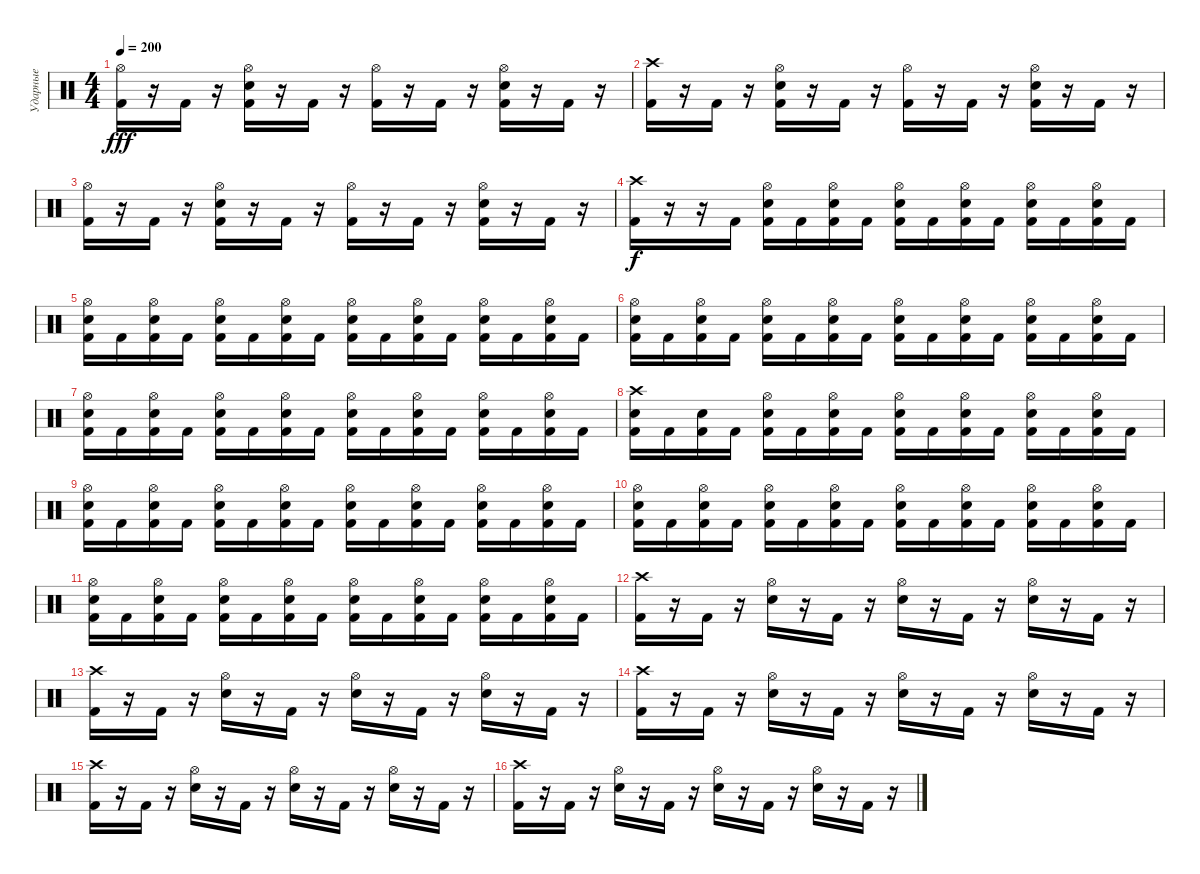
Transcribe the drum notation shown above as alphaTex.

\track ("Ударные" "Ударные") {instrument percussion}
\staff {score}
\articulation defaults
\ts (4 4)
\tempo 200
\clef neutral
\ks c
("Hi-Hat (open)" "Kick (hit) 2").16{dy fff} r.16 "Kick (hit) 2".16 r.16 ("Hi-Hat (open)" "Electric Snare (hit)" "Kick (hit) 2").16 r.16 "Kick (hit) 2".16 r.16 ("Hi-Hat (open)" "Kick (hit) 2").16 r.16 "Kick (hit) 2".16 r.16 ("Hi-Hat (open)" "Electric Snare (hit)" "Kick (hit) 2").16 r.16 "Kick (hit) 2".16 r.16 |
("Crash high (hit)" "Kick (hit) 2").16 r.16 "Kick (hit) 2".16 r.16 ("Hi-Hat (open)" "Electric Snare (hit)" "Kick (hit) 2").16 r.16 "Kick (hit) 2".16 r.16 ("Hi-Hat (open)" "Kick (hit) 2").16 r.16 "Kick (hit) 2".16 r.16 ("Hi-Hat (open)" "Electric Snare (hit)" "Kick (hit) 2").16 r.16 "Kick (hit) 2".16 r.16 |
("Hi-Hat (open)" "Kick (hit) 2").16 r.16 "Kick (hit) 2".16 r.16 ("Hi-Hat (open)" "Electric Snare (hit)" "Kick (hit) 2").16 r.16 "Kick (hit) 2".16 r.16 ("Hi-Hat (open)" "Kick (hit) 2").16 r.16 "Kick (hit) 2".16 r.16 ("Hi-Hat (open)" "Electric Snare (hit)" "Kick (hit) 2").16 r.16 "Kick (hit) 2".16 r.16 |
("Crash high (hit)" "Kick (hit) 2").16{dy f} r.16 r.16 "Kick (hit) 2".16 ("Hi-Hat (open)" "Electric Snare (hit)" "Kick (hit) 2").16 "Kick (hit) 2".16 ("Hi-Hat (open)" "Electric Snare (hit)" "Kick (hit) 2").16 "Kick (hit) 2".16 ("Hi-Hat (open)" "Electric Snare (hit)" "Kick (hit) 2").16 "Kick (hit) 2".16 ("Hi-Hat (open)" "Electric Snare (hit)" "Kick (hit) 2").16 "Kick (hit) 2".16 ("Hi-Hat (open)" "Electric Snare (hit)" "Kick (hit) 2").16 "Kick (hit) 2".16 ("Hi-Hat (open)" "Electric Snare (hit)" "Kick (hit) 2").16 "Kick (hit) 2".16 |
("Hi-Hat (open)" "Electric Snare (hit)" "Kick (hit) 2").16 "Kick (hit) 2".16 ("Hi-Hat (open)" "Electric Snare (hit)" "Kick (hit) 2").16 "Kick (hit) 2".16 ("Hi-Hat (open)" "Electric Snare (hit)" "Kick (hit) 2").16 "Kick (hit) 2".16 ("Hi-Hat (open)" "Electric Snare (hit)" "Kick (hit) 2").16 "Kick (hit) 2".16 ("Hi-Hat (open)" "Electric Snare (hit)" "Kick (hit) 2").16 "Kick (hit) 2".16 ("Hi-Hat (open)" "Electric Snare (hit)" "Kick (hit) 2").16 "Kick (hit) 2".16 ("Hi-Hat (open)" "Electric Snare (hit)" "Kick (hit) 2").16 "Kick (hit) 2".16 ("Hi-Hat (open)" "Electric Snare (hit)" "Kick (hit) 2").16 "Kick (hit) 2".16 |
("Hi-Hat (open)" "Electric Snare (hit)" "Kick (hit) 2").16 "Kick (hit) 2".16 ("Hi-Hat (open)" "Electric Snare (hit)" "Kick (hit) 2").16 "Kick (hit) 2".16 ("Hi-Hat (open)" "Electric Snare (hit)" "Kick (hit) 2").16 "Kick (hit) 2".16 ("Hi-Hat (open)" "Electric Snare (hit)" "Kick (hit) 2").16 "Kick (hit) 2".16 ("Hi-Hat (open)" "Electric Snare (hit)" "Kick (hit) 2").16 "Kick (hit) 2".16 ("Hi-Hat (open)" "Electric Snare (hit)" "Kick (hit) 2").16 "Kick (hit) 2".16 ("Hi-Hat (open)" "Electric Snare (hit)" "Kick (hit) 2").16 "Kick (hit) 2".16 ("Hi-Hat (open)" "Electric Snare (hit)" "Kick (hit) 2").16 "Kick (hit) 2".16 |
("Hi-Hat (open)" "Electric Snare (hit)" "Kick (hit) 2").16 "Kick (hit) 2".16 ("Hi-Hat (open)" "Electric Snare (hit)" "Kick (hit) 2").16 "Kick (hit) 2".16 ("Hi-Hat (open)" "Electric Snare (hit)" "Kick (hit) 2").16 "Kick (hit) 2".16 ("Hi-Hat (open)" "Electric Snare (hit)" "Kick (hit) 2").16 "Kick (hit) 2".16 ("Hi-Hat (open)" "Electric Snare (hit)" "Kick (hit) 2").16 "Kick (hit) 2".16 ("Hi-Hat (open)" "Electric Snare (hit)" "Kick (hit) 2").16 "Kick (hit) 2".16 ("Hi-Hat (open)" "Electric Snare (hit)" "Kick (hit) 2").16 "Kick (hit) 2".16 ("Hi-Hat (open)" "Electric Snare (hit)" "Kick (hit) 2").16 "Kick (hit) 2".16 |
("Crash high (hit)" "Electric Snare (hit)" "Kick (hit) 2").16 "Kick (hit) 2".16 ("Electric Snare (hit)" "Kick (hit) 2").16 "Kick (hit) 2".16 ("Hi-Hat (open)" "Electric Snare (hit)" "Kick (hit) 2").16 "Kick (hit) 2".16 ("Hi-Hat (open)" "Electric Snare (hit)" "Kick (hit) 2").16 "Kick (hit) 2".16 ("Hi-Hat (open)" "Electric Snare (hit)" "Kick (hit) 2").16 "Kick (hit) 2".16 ("Hi-Hat (open)" "Electric Snare (hit)" "Kick (hit) 2").16 "Kick (hit) 2".16 ("Hi-Hat (open)" "Electric Snare (hit)" "Kick (hit) 2").16 "Kick (hit) 2".16 ("Hi-Hat (open)" "Electric Snare (hit)" "Kick (hit) 2").16 "Kick (hit) 2".16 |
("Hi-Hat (open)" "Electric Snare (hit)" "Kick (hit) 2").16 "Kick (hit) 2".16 ("Hi-Hat (open)" "Electric Snare (hit)" "Kick (hit) 2").16 "Kick (hit) 2".16 ("Hi-Hat (open)" "Electric Snare (hit)" "Kick (hit) 2").16 "Kick (hit) 2".16 ("Hi-Hat (open)" "Electric Snare (hit)" "Kick (hit) 2").16 "Kick (hit) 2".16 ("Hi-Hat (open)" "Electric Snare (hit)" "Kick (hit) 2").16 "Kick (hit) 2".16 ("Hi-Hat (open)" "Electric Snare (hit)" "Kick (hit) 2").16 "Kick (hit) 2".16 ("Hi-Hat (open)" "Electric Snare (hit)" "Kick (hit) 2").16 "Kick (hit) 2".16 ("Hi-Hat (open)" "Electric Snare (hit)" "Kick (hit) 2").16 "Kick (hit) 2".16 |
("Hi-Hat (open)" "Electric Snare (hit)" "Kick (hit) 2").16 "Kick (hit) 2".16 ("Hi-Hat (open)" "Electric Snare (hit)" "Kick (hit) 2").16 "Kick (hit) 2".16 ("Hi-Hat (open)" "Electric Snare (hit)" "Kick (hit) 2").16 "Kick (hit) 2".16 ("Hi-Hat (open)" "Electric Snare (hit)" "Kick (hit) 2").16 "Kick (hit) 2".16 ("Hi-Hat (open)" "Electric Snare (hit)" "Kick (hit) 2").16 "Kick (hit) 2".16 ("Hi-Hat (open)" "Electric Snare (hit)" "Kick (hit) 2").16 "Kick (hit) 2".16 ("Hi-Hat (open)" "Electric Snare (hit)" "Kick (hit) 2").16 "Kick (hit) 2".16 ("Hi-Hat (open)" "Electric Snare (hit)" "Kick (hit) 2").16 "Kick (hit) 2".16 |
("Hi-Hat (open)" "Electric Snare (hit)" "Kick (hit) 2").16 "Kick (hit) 2".16 ("Hi-Hat (open)" "Electric Snare (hit)" "Kick (hit) 2").16 "Kick (hit) 2".16 ("Hi-Hat (open)" "Electric Snare (hit)" "Kick (hit) 2").16 "Kick (hit) 2".16 ("Hi-Hat (open)" "Electric Snare (hit)" "Kick (hit) 2").16 "Kick (hit) 2".16 ("Hi-Hat (open)" "Electric Snare (hit)" "Kick (hit) 2").16 "Kick (hit) 2".16 ("Hi-Hat (open)" "Electric Snare (hit)" "Kick (hit) 2").16 "Kick (hit) 2".16 ("Hi-Hat (open)" "Electric Snare (hit)" "Kick (hit) 2").16 "Kick (hit) 2".16 ("Hi-Hat (open)" "Electric Snare (hit)" "Kick (hit) 2").16 "Kick (hit) 2".16 |
("Crash high (hit)" "Kick (hit) 2").16 r.16 "Kick (hit) 2".16 r.16 ("Hi-Hat (open)" "Electric Snare (hit)").16 r.16 "Kick (hit) 2".16 r.16 ("Hi-Hat (open)" "Electric Snare (hit)").16 r.16 "Kick (hit) 2".16 r.16 ("Hi-Hat (open)" "Electric Snare (hit)").16 r.16 "Kick (hit) 2".16 r.16 |
("Crash high (hit)" "Kick (hit) 2").16 r.16 "Kick (hit) 2".16 r.16 ("Hi-Hat (open)" "Electric Snare (hit)").16 r.16 "Kick (hit) 2".16 r.16 ("Hi-Hat (open)" "Electric Snare (hit)").16 r.16 "Kick (hit) 2".16 r.16 ("Hi-Hat (open)" "Electric Snare (hit)").16 r.16 "Kick (hit) 2".16 r.16 |
("Crash high (hit)" "Kick (hit) 2").16 r.16 "Kick (hit) 2".16 r.16 ("Hi-Hat (open)" "Electric Snare (hit)").16 r.16 "Kick (hit) 2".16 r.16 ("Hi-Hat (open)" "Electric Snare (hit)").16 r.16 "Kick (hit) 2".16 r.16 ("Hi-Hat (open)" "Electric Snare (hit)").16 r.16 "Kick (hit) 2".16 r.16 |
("Crash high (hit)" "Kick (hit) 2").16 r.16 "Kick (hit) 2".16 r.16 ("Hi-Hat (open)" "Electric Snare (hit)").16 r.16 "Kick (hit) 2".16 r.16 ("Hi-Hat (open)" "Electric Snare (hit)").16 r.16 "Kick (hit) 2".16 r.16 ("Hi-Hat (open)" "Electric Snare (hit)").16 r.16 "Kick (hit) 2".16 r.16 |
("Crash high (hit)" "Kick (hit) 2").16 r.16 "Kick (hit) 2".16 r.16 ("Hi-Hat (open)" "Electric Snare (hit)").16 r.16 "Kick (hit) 2".16 r.16 ("Hi-Hat (open)" "Electric Snare (hit)").16 r.16 "Kick (hit) 2".16 r.16 ("Hi-Hat (open)" "Electric Snare (hit)").16 r.16 "Kick (hit) 2".16 r.16
